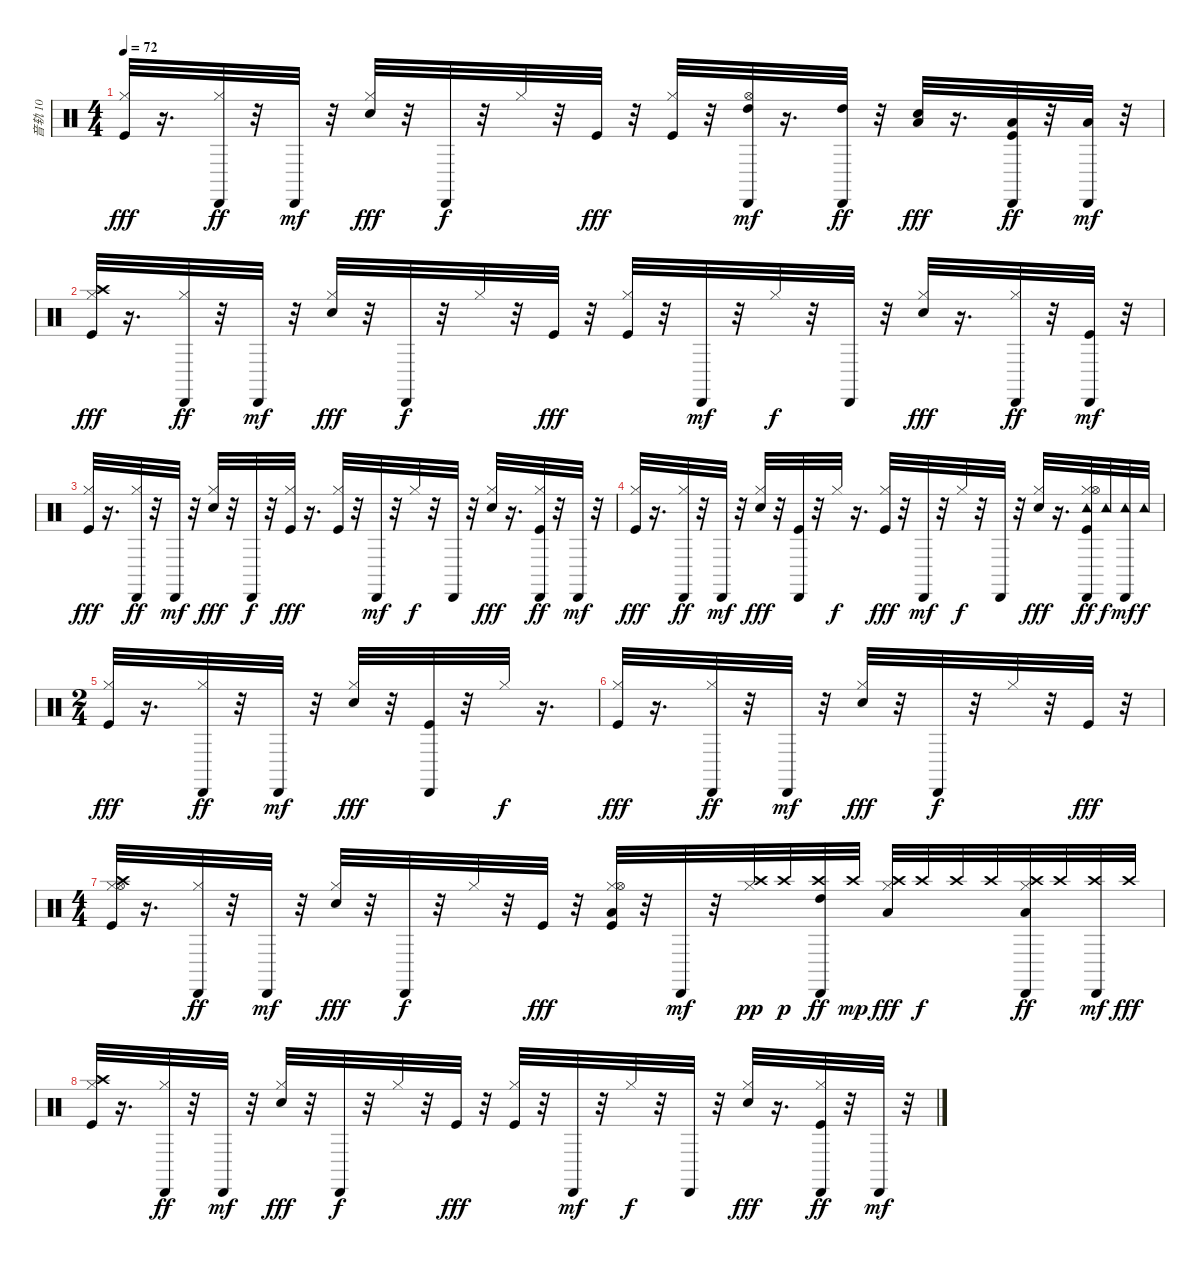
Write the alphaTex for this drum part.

\track ("音轨 10" "音轨 10") {instrument percussion}
\staff {score}
\articulation defaults
\ts (4 4)
\tempo 72
\clef neutral
\ks c
("Kick (hit)" "Hi-Hat (closed)").32{dy fff} r.16{d} ("Hi-Hat (closed)" "Cabasa (hit)").32{dy ff} r.32 "Cabasa (hit)".32{dy mf} r.32 ("Electric Snare (hit)" "Hi-Hat (closed)").32{dy fff} r.32 "Cabasa (hit)".32{dy f} r.32 "Hi-Hat (closed)".32 r.32 "Kick (hit)".32{dy fff} r.32 ("Kick (hit)" "Hi-Hat (closed)").32 r.32 ("Hi-Hat (open)" "High Tom (hit)" "Cabasa (hit)").32{dy mf} r.16{d} ("High Tom (hit)" "Cabasa (hit)").32{dy ff} r.32 ("Electric Snare (hit)" "Low Tom (hit)").32{dy fff} r.16{d} ("Kick (hit)" "Low Tom (hit)" "Cabasa (hit)").32{dy ff} r.32 ("Low Tom (hit)" "Cabasa (hit)").32{dy mf} r.32 |
("Kick (hit)" "Hi-Hat (closed)" "Crash high (hit)").32{dy fff} r.16{d} ("Hi-Hat (closed)" "Cabasa (hit)").32{dy ff} r.32 "Cabasa (hit)".32{dy mf} r.32 ("Electric Snare (hit)" "Hi-Hat (closed)").32{dy fff} r.32 "Cabasa (hit)".32{dy f} r.32 "Hi-Hat (closed)".32 r.32 "Kick (hit)".32{dy fff} r.32 ("Kick (hit)" "Hi-Hat (closed)").32 r.32 "Cabasa (hit)".32{dy mf} r.32 "Hi-Hat (closed)".32{dy f} r.32 "Cabasa (hit)".32 r.32 ("Electric Snare (hit)" "Hi-Hat (closed)").32{dy fff} r.16{d} ("Hi-Hat (closed)" "Cabasa (hit)").32{dy ff} r.32 ("Kick (hit)" "Cabasa (hit)").32{dy mf} r.32 |
("Kick (hit)" "Hi-Hat (closed)").32{dy fff} r.16{d} ("Hi-Hat (closed)" "Cabasa (hit)").32{dy ff} r.32 "Cabasa (hit)".32{dy mf} r.32 ("Electric Snare (hit)" "Hi-Hat (closed)").32{dy fff} r.32 "Cabasa (hit)".32{dy f} r.32 ("Kick (hit)" "Hi-Hat (closed)").32{dy fff} r.16{d} ("Kick (hit)" "Hi-Hat (closed)").32 r.32 "Cabasa (hit)".32{dy mf} r.32 "Hi-Hat (closed)".32{dy f} r.32 "Cabasa (hit)".32 r.32 ("Electric Snare (hit)" "Hi-Hat (closed)").32{dy fff} r.16{d} ("Kick (hit)" "Hi-Hat (closed)" "Cabasa (hit)").32{dy ff} r.32 "Cabasa (hit)".32{dy mf} r.32 |
("Kick (hit)" "Hi-Hat (closed)").32{dy fff} r.16{d} ("Hi-Hat (closed)" "Cabasa (hit)").32{dy ff} r.32 "Cabasa (hit)".32{dy mf} r.32 ("Electric Snare (hit)" "Hi-Hat (closed)").32{dy fff} r.32 ("Kick (hit)" "Cabasa (hit)").32 r.32 "Hi-Hat (closed)".32{dy f} r.16{d} ("Kick (hit)" "Hi-Hat (closed)").32{dy fff} r.32 "Cabasa (hit)".32{dy mf} r.32 "Hi-Hat (closed)".32{dy f} r.32 "Cabasa (hit)".32 r.32 ("Electric Snare (hit)" "Hi-Hat (closed)").32{dy fff} r.16{d} ("Kick (hit)" "Hi-Hat (closed)" "Hi-Hat (open)" "Tambourine (hit)" "Cabasa (hit)").32{dy ff} "Tambourine (hit)".32{dy f} ("Tambourine (hit)" "Cabasa (hit)").32{dy mf} "Tambourine (hit)".32{dy f} |
\ts (2 4)
("Kick (hit)" "Hi-Hat (closed)").32{dy fff} r.16{d} ("Hi-Hat (closed)" "Cabasa (hit)").32{dy ff} r.32 "Cabasa (hit)".32{dy mf} r.32 ("Electric Snare (hit)" "Hi-Hat (closed)").32{dy fff} r.32 ("Kick (hit)" "Cabasa (hit)").32 r.32 "Hi-Hat (closed)".32{dy f} r.16{d} |
("Kick (hit)" "Hi-Hat (closed)").32{dy fff} r.16{d} ("Hi-Hat (closed)" "Cabasa (hit)").32{dy ff} r.32 "Cabasa (hit)".32{dy mf} r.32 ("Electric Snare (hit)" "Hi-Hat (closed)").32{dy fff} r.32 "Cabasa (hit)".32{dy f} r.32 "Hi-Hat (closed)".32 r.32 "Kick (hit)".32{dy fff} r.32 |
\ts (4 4)
("Kick (hit)" "Hi-Hat (closed)" "Hi-Hat (open)" "Crash high (hit)").32 r.16{d} ("Hi-Hat (closed)" "Cabasa (hit)").32{dy ff} r.32 "Cabasa (hit)".32{dy mf} r.32 ("Electric Snare (hit)" "Hi-Hat (closed)").32{dy fff} r.32 "Cabasa (hit)".32{dy f} r.32 "Hi-Hat (closed)".32 r.32 "Kick (hit)".32{dy fff} r.32 ("Kick (hit)" "Hi-Hat (closed)" "Hi-Hat (open)" "Low Floor Tom (hit)").32 r.32 "Cabasa (hit)".32{dy mf} r.32 ("Hi-Hat (closed)" "Crash high (hit)").32{dy pp} "Crash high (hit)".32{dy p} ("Crash high (hit)" "High Tom (hit)" "Cabasa (hit)").32{dy ff} "Crash high (hit)".32{dy mp} ("Hi-Hat (closed)" "Crash high (hit)" "Low Tom (hit)").32{dy fff} "Crash high (hit)".32{dy f} "Crash high (hit)".32 "Crash high (hit)".32 ("Hi-Hat (closed)" "Crash high (hit)" "Low Tom (hit)" "Cabasa (hit)").32{dy ff} "Crash high (hit)".32 ("Crash high (hit)" "Cabasa (hit)").32{dy mf} "Crash high (hit)".32{dy fff} |
("Kick (hit)" "Hi-Hat (closed)" "Crash high (hit)").32 r.16{d} ("Hi-Hat (closed)" "Cabasa (hit)").32{dy ff} r.32 "Cabasa (hit)".32{dy mf} r.32 ("Electric Snare (hit)" "Hi-Hat (closed)").32{dy fff} r.32 "Cabasa (hit)".32{dy f} r.32 "Hi-Hat (closed)".32 r.32 "Kick (hit)".32{dy fff} r.32 ("Kick (hit)" "Hi-Hat (closed)").32 r.32 "Cabasa (hit)".32{dy mf} r.32 "Hi-Hat (closed)".32{dy f} r.32 "Cabasa (hit)".32 r.32 ("Electric Snare (hit)" "Hi-Hat (closed)").32{dy fff} r.16{d} ("Kick (hit)" "Hi-Hat (closed)" "Cabasa (hit)").32{dy ff} r.32 "Cabasa (hit)".32{dy mf} r.32
